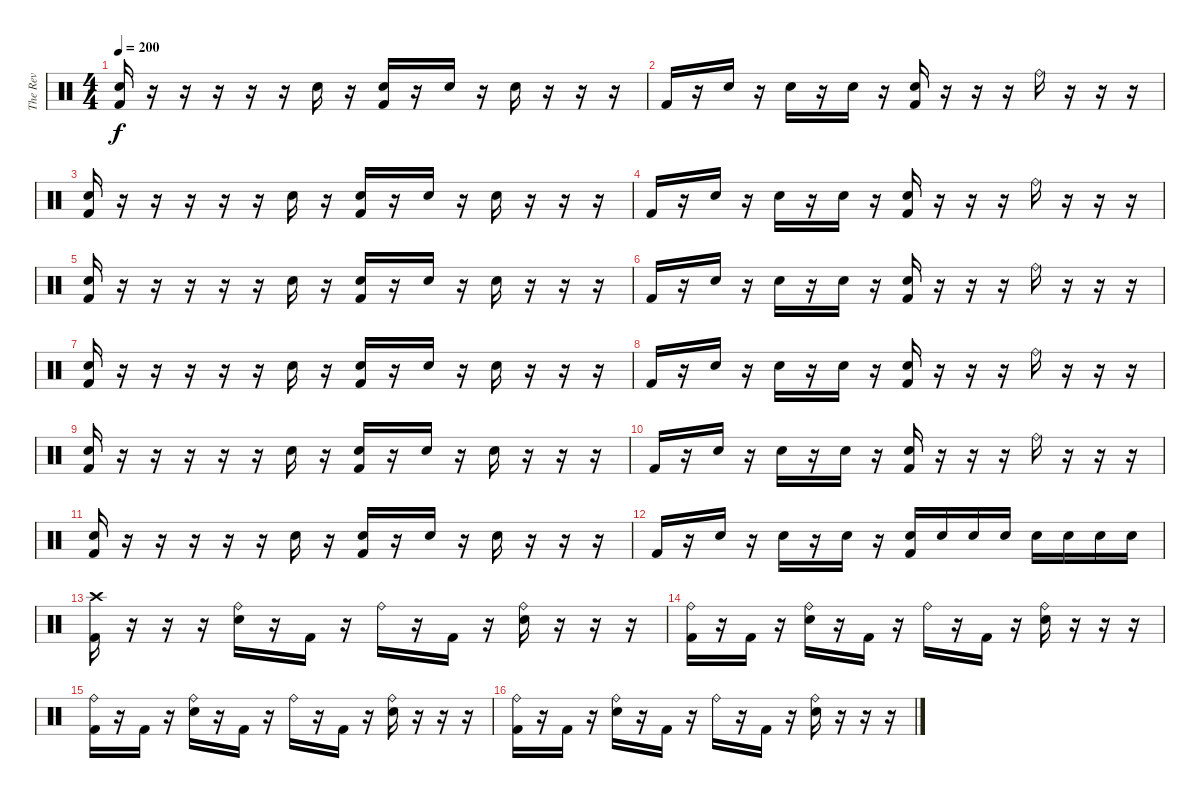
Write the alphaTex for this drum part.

\track ("The Rev" "The Rev") {instrument percussion}
\staff {score}
\articulation defaults
\ts (4 4)
\tempo 200
\clef neutral
\ks c
("Electric Snare (hit)" "Kick (hit) 2").16{dy f} r.16 r.16 r.16 r.16 r.16 "Electric Snare (hit)".16 r.16 ("Electric Snare (hit)" "Kick (hit) 2").16 r.16 "Electric Snare (hit)".16 r.16 "Electric Snare (hit)".16 r.16 r.16 r.16 |
"Kick (hit) 2".16 r.16 "Electric Snare (hit)".16 r.16 "Electric Snare (hit)".16 r.16 "Electric Snare (hit)".16 r.16 ("Electric Snare (hit)" "Kick (hit) 2").16 r.16 r.16 r.16 "Ride (bell)".16 r.16 r.16 r.16 |
("Electric Snare (hit)" "Kick (hit) 2").16 r.16 r.16 r.16 r.16 r.16 "Electric Snare (hit)".16 r.16 ("Electric Snare (hit)" "Kick (hit) 2").16 r.16 "Electric Snare (hit)".16 r.16 "Electric Snare (hit)".16 r.16 r.16 r.16 |
"Kick (hit) 2".16 r.16 "Electric Snare (hit)".16 r.16 "Electric Snare (hit)".16 r.16 "Electric Snare (hit)".16 r.16 ("Electric Snare (hit)" "Kick (hit) 2").16 r.16 r.16 r.16 "Ride (bell)".16 r.16 r.16 r.16 |
("Electric Snare (hit)" "Kick (hit) 2").16 r.16 r.16 r.16 r.16 r.16 "Electric Snare (hit)".16 r.16 ("Electric Snare (hit)" "Kick (hit) 2").16 r.16 "Electric Snare (hit)".16 r.16 "Electric Snare (hit)".16 r.16 r.16 r.16 |
"Kick (hit) 2".16 r.16 "Electric Snare (hit)".16 r.16 "Electric Snare (hit)".16 r.16 "Electric Snare (hit)".16 r.16 ("Electric Snare (hit)" "Kick (hit) 2").16 r.16 r.16 r.16 "Ride (bell)".16 r.16 r.16 r.16 |
("Electric Snare (hit)" "Kick (hit) 2").16 r.16 r.16 r.16 r.16 r.16 "Electric Snare (hit)".16 r.16 ("Electric Snare (hit)" "Kick (hit) 2").16 r.16 "Electric Snare (hit)".16 r.16 "Electric Snare (hit)".16 r.16 r.16 r.16 |
"Kick (hit) 2".16 r.16 "Electric Snare (hit)".16 r.16 "Electric Snare (hit)".16 r.16 "Electric Snare (hit)".16 r.16 ("Electric Snare (hit)" "Kick (hit) 2").16 r.16 r.16 r.16 "Ride (bell)".16 r.16 r.16 r.16 |
("Electric Snare (hit)" "Kick (hit) 2").16 r.16 r.16 r.16 r.16 r.16 "Electric Snare (hit)".16 r.16 ("Electric Snare (hit)" "Kick (hit) 2").16 r.16 "Electric Snare (hit)".16 r.16 "Electric Snare (hit)".16 r.16 r.16 r.16 |
"Kick (hit) 2".16 r.16 "Electric Snare (hit)".16 r.16 "Electric Snare (hit)".16 r.16 "Electric Snare (hit)".16 r.16 ("Electric Snare (hit)" "Kick (hit) 2").16 r.16 r.16 r.16 "Ride (bell)".16 r.16 r.16 r.16 |
("Electric Snare (hit)" "Kick (hit) 2").16 r.16 r.16 r.16 r.16 r.16 "Electric Snare (hit)".16 r.16 ("Electric Snare (hit)" "Kick (hit) 2").16 r.16 "Electric Snare (hit)".16 r.16 "Electric Snare (hit)".16 r.16 r.16 r.16 |
"Kick (hit) 2".16 r.16 "Electric Snare (hit)".16 r.16 "Electric Snare (hit)".16 r.16 "Electric Snare (hit)".16 r.16 ("Electric Snare (hit)" "Kick (hit) 2").16 "Electric Snare (hit)".16 "Electric Snare (hit)".16 "Electric Snare (hit)".16 "Electric Snare (hit)".16 "Electric Snare (hit)".16 "Electric Snare (hit)".16 "Electric Snare (hit)".16 |
("Crash high (hit)" "Kick (hit) 2").16 r.16 r.16 r.16 ("Ride (bell)" "Electric Snare (hit)").16 r.16 "Kick (hit) 2".16 r.16 "Ride (bell)".16 r.16 "Kick (hit) 2".16 r.16 ("Ride (bell)" "Electric Snare (hit)").16 r.16 r.16 r.16 |
("Ride (bell)" "Kick (hit) 2").16 r.16 "Kick (hit) 2".16 r.16 ("Ride (bell)" "Electric Snare (hit)").16 r.16 "Kick (hit) 2".16 r.16 "Ride (bell)".16 r.16 "Kick (hit) 2".16 r.16 ("Ride (bell)" "Electric Snare (hit)").16 r.16 r.16 r.16 |
("Ride (bell)" "Kick (hit) 2").16 r.16 "Kick (hit) 2".16 r.16 ("Ride (bell)" "Electric Snare (hit)").16 r.16 "Kick (hit) 2".16 r.16 "Ride (bell)".16 r.16 "Kick (hit) 2".16 r.16 ("Ride (bell)" "Electric Snare (hit)").16 r.16 r.16 r.16 |
("Ride (bell)" "Kick (hit) 2").16 r.16 "Kick (hit) 2".16 r.16 ("Ride (bell)" "Electric Snare (hit)").16 r.16 "Kick (hit) 2".16 r.16 "Ride (bell)".16 r.16 "Kick (hit) 2".16 r.16 ("Ride (bell)" "Electric Snare (hit)").16 r.16 r.16 r.16
